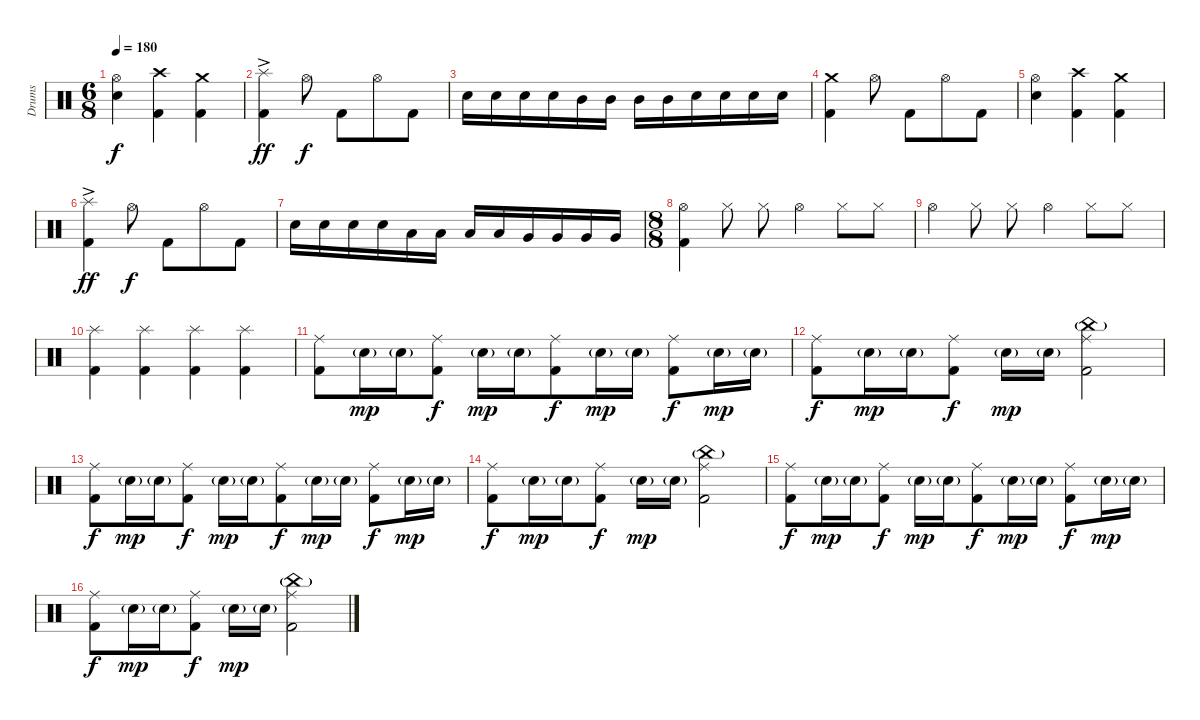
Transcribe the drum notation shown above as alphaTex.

\track ("Drums" "Drums") {instrument percussion}
\staff {score}
\articulation defaults
\ts (6 8)
\tempo 180
\clef neutral
\ks c
("Hi-Hat (open)" "Electric Snare (hit)").4{dy f} ("Crash high (hit)" "Kick (hit) 2").4 ("Crash medium (hit)" "Kick (hit) 2").4 |
("Splash (hit)"{ac} "Kick (hit) 2").4{dy ff} "Hi-Hat (open)".8{dy f} "Kick (hit) 2".8 "Hi-Hat (open)".8 "Kick (hit) 2".8 |
"Electric Snare (hit)".16 "Electric Snare (hit)".16 "Electric Snare (hit)".16 "Electric Snare (hit)".16 "Mid Tom (hit)".16 "Mid Tom (hit)".16 "Mid Tom (hit)".16 "Mid Tom (hit)".16 "Electric Snare (hit)".16 "Electric Snare (hit)".16 "Electric Snare (hit)".16 "Electric Snare (hit)".16 |
("Crash medium (hit)" "Kick (hit) 2").4 "Hi-Hat (open)".8 "Kick (hit) 2".8 "Hi-Hat (open)".8 "Kick (hit) 2".8 |
("Hi-Hat (open)" "Electric Snare (hit)").4 ("Crash high (hit)" "Kick (hit) 2").4 ("Crash medium (hit)" "Kick (hit) 2").4 |
("Splash (hit)"{ac} "Kick (hit) 2").4{dy ff} "Hi-Hat (open)".8{dy f} "Kick (hit) 2".8 "Hi-Hat (open)".8 "Kick (hit) 2".8 |
"Electric Snare (hit)".16 "Electric Snare (hit)".16 "Electric Snare (hit)".16 "Electric Snare (hit)".16 "Low Tom (hit)".16 "Low Tom (hit)".16 "Low Tom (hit)".16 "Low Tom (hit)".16 "Very Low Tom (hit)".16 "Very Low Tom (hit)".16 "Very Low Tom (hit)".16 "Very Low Tom (hit)".16 |
\ts (8 8)
("Hi-Hat (open)" "Kick (hit) 2").4 "Hi-Hat (closed)".8 "Hi-Hat (closed)".8 "Hi-Hat (open)".4 "Hi-Hat (closed)".8 "Hi-Hat (closed)".8 |
"Hi-Hat (open)".4 "Hi-Hat (closed)".8 "Hi-Hat (closed)".8 "Hi-Hat (open)".4 "Hi-Hat (closed)".8 "Hi-Hat (closed)".8 |
("Splash (hit)" "Kick (hit) 2").4 ("Splash (hit)" "Kick (hit) 2").4 ("Splash (hit)" "Kick (hit) 2").4 ("Splash (hit)" "Kick (hit) 2").4 |
("Ride (middle)" "Kick (hit) 2").8 "Electric Snare (hit)"{g}.16{dy mp} "Electric Snare (hit)"{g}.16 ("Ride (middle)" "Kick (hit) 2").8{dy f} "Electric Snare (hit)"{g}.16{dy mp} "Electric Snare (hit)"{g}.16 ("Ride (middle)" "Kick (hit) 2").8{dy f} "Electric Snare (hit)"{g}.16{dy mp} "Electric Snare (hit)"{g}.16 ("Ride (middle)" "Kick (hit) 2").8{dy f} "Electric Snare (hit)"{g}.16{dy mp} "Electric Snare (hit)"{g}.16 |
("Ride (middle)" "Kick (hit) 2").8{dy f} "Electric Snare (hit)"{g}.16{dy mp} "Electric Snare (hit)"{g}.16 ("Ride (middle)" "Kick (hit) 2").8{dy f} "Electric Snare (hit)"{g}.16{dy mp} "Electric Snare (hit)"{g}.16 ("Ride (middle)" "China (hit)"{g} "Kick (hit) 2").2 |
("Ride (middle)" "Kick (hit) 2").8{dy f} "Electric Snare (hit)"{g}.16{dy mp} "Electric Snare (hit)"{g}.16 ("Ride (middle)" "Kick (hit) 2").8{dy f} "Electric Snare (hit)"{g}.16{dy mp} "Electric Snare (hit)"{g}.16 ("Ride (middle)" "Kick (hit) 2").8{dy f} "Electric Snare (hit)"{g}.16{dy mp} "Electric Snare (hit)"{g}.16 ("Ride (middle)" "Kick (hit) 2").8{dy f} "Electric Snare (hit)"{g}.16{dy mp} "Electric Snare (hit)"{g}.16 |
("Ride (middle)" "Kick (hit) 2").8{dy f} "Electric Snare (hit)"{g}.16{dy mp} "Electric Snare (hit)"{g}.16 ("Ride (middle)" "Kick (hit) 2").8{dy f} "Electric Snare (hit)"{g}.16{dy mp} "Electric Snare (hit)"{g}.16 ("Ride (middle)" "China (hit)"{g} "Kick (hit) 2").2 |
("Ride (middle)" "Kick (hit) 2").8{dy f} "Electric Snare (hit)"{g}.16{dy mp} "Electric Snare (hit)"{g}.16 ("Ride (middle)" "Kick (hit) 2").8{dy f} "Electric Snare (hit)"{g}.16{dy mp} "Electric Snare (hit)"{g}.16 ("Ride (middle)" "Kick (hit) 2").8{dy f} "Electric Snare (hit)"{g}.16{dy mp} "Electric Snare (hit)"{g}.16 ("Ride (middle)" "Kick (hit) 2").8{dy f} "Electric Snare (hit)"{g}.16{dy mp} "Electric Snare (hit)"{g}.16 |
("Ride (middle)" "Kick (hit) 2").8{dy f} "Electric Snare (hit)"{g}.16{dy mp} "Electric Snare (hit)"{g}.16 ("Ride (middle)" "Kick (hit) 2").8{dy f} "Electric Snare (hit)"{g}.16{dy mp} "Electric Snare (hit)"{g}.16 ("Ride (middle)" "China (hit)"{g} "Kick (hit) 2").2
